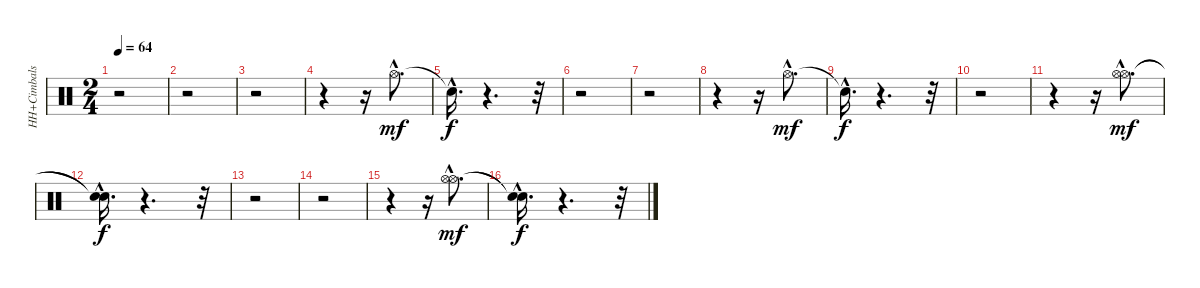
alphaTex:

\track ("HH+Cimbals" "HH+Cimbals") {instrument percussion}
\staff {score}
\articulation defaults
\ts (2 4)
\tempo 64
\clef neutral
\ks c
r.2{dy f} |
r.2 |
r.2 |
r.4 r.16 "Hi-Hat (open)"{hac}.8{d dy mf} |
"Snare (hit)"{hac t}.16{d dy f} r.4{d} r.32 |
r.2 |
r.2 |
r.4 r.16 "Hi-Hat (open)"{hac}.8{d dy mf} |
"Snare (hit)"{hac t}.16{d dy f} r.4{d} r.32 |
r.2 |
r.4 r.16 ("Hi-Hat (open)"{hac} "Hi-Hat (open)"{hac}).8{d dy mf} |
("Snare (hit)"{hac t} "Snare (hit)"{hac t}).16{d dy f} r.4{d} r.32 |
r.2 |
r.2 |
r.4 r.16 ("Hi-Hat (open)"{hac} "Hi-Hat (open)"{hac}).8{d dy mf} |
("Snare (hit)"{hac t} "Snare (hit)"{hac t}).16{d dy f} r.4{d} r.32
